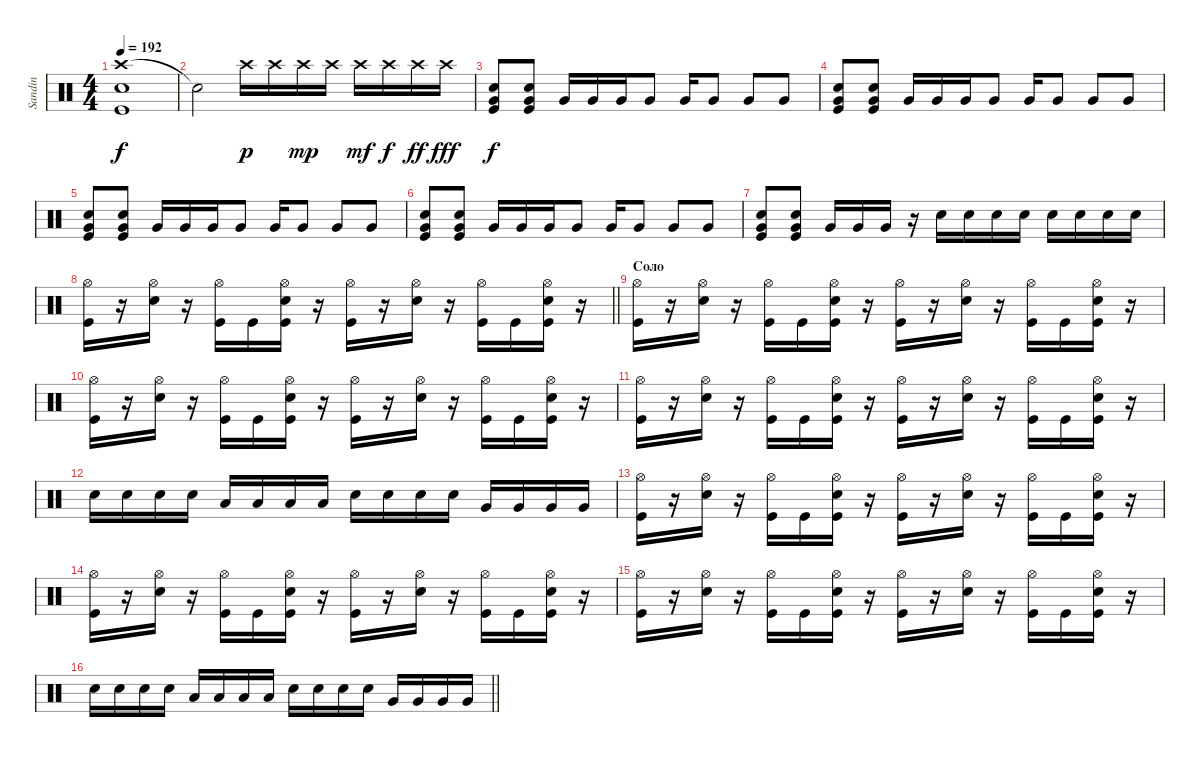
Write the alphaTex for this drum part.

\track ("Sandin" "Sandin") {instrument percussion}
\staff {score}
\articulation defaults
\ts (4 4)
\tempo 192
\clef neutral
\ks c
("Crash high (hit)" "Electric Snare (hit)" "Kick (hit)").1{dy f} |
"Snare (hit)"{t}.2 "Crash high (hit)".16{dy p} "Crash high (hit)".16 "Crash high (hit)".16{dy mp} "Crash high (hit)".16 "Crash high (hit)".16{dy mf} "Crash high (hit)".16{dy f} "Crash high (hit)".16{dy ff} "Crash high (hit)".16{dy fff} |
("Electric Snare (hit)" "Very Low Tom (hit)" "Kick (hit)").8{dy f} ("Electric Snare (hit)" "Very Low Tom (hit)" "Kick (hit)").8 "Very Low Tom (hit)".16 "Very Low Tom (hit)".16 "Very Low Tom (hit)".16 "Very Low Tom (hit)".8 "Very Low Tom (hit)".16 "Very Low Tom (hit)".8 "Very Low Tom (hit)".8 "Very Low Tom (hit)".8 |
("Electric Snare (hit)" "Very Low Tom (hit)" "Kick (hit)").8 ("Electric Snare (hit)" "Very Low Tom (hit)" "Kick (hit)").8 "Very Low Tom (hit)".16 "Very Low Tom (hit)".16 "Very Low Tom (hit)".16 "Very Low Tom (hit)".8 "Very Low Tom (hit)".16 "Very Low Tom (hit)".8 "Very Low Tom (hit)".8 "Very Low Tom (hit)".8 |
("Electric Snare (hit)" "Very Low Tom (hit)" "Kick (hit)").8 ("Electric Snare (hit)" "Very Low Tom (hit)" "Kick (hit)").8 "Very Low Tom (hit)".16 "Very Low Tom (hit)".16 "Very Low Tom (hit)".16 "Very Low Tom (hit)".8 "Very Low Tom (hit)".16 "Very Low Tom (hit)".8 "Very Low Tom (hit)".8 "Very Low Tom (hit)".8 |
("Electric Snare (hit)" "Very Low Tom (hit)" "Kick (hit)").8 ("Electric Snare (hit)" "Very Low Tom (hit)" "Kick (hit)").8 "Very Low Tom (hit)".16 "Very Low Tom (hit)".16 "Very Low Tom (hit)".16 "Very Low Tom (hit)".8 "Very Low Tom (hit)".16 "Very Low Tom (hit)".8 "Very Low Tom (hit)".8 "Very Low Tom (hit)".8 |
("Electric Snare (hit)" "Very Low Tom (hit)" "Kick (hit)").8 ("Electric Snare (hit)" "Very Low Tom (hit)" "Kick (hit)").8 "Very Low Tom (hit)".16 "Very Low Tom (hit)".16 "Very Low Tom (hit)".16 r.16 "Electric Snare (hit)".16 "Electric Snare (hit)".16 "Electric Snare (hit)".16 "Electric Snare (hit)".16 "Electric Snare (hit)".16 "Electric Snare (hit)".16 "Electric Snare (hit)".16 "Electric Snare (hit)".16 |
\barLineRight lightlight
("Hi-Hat (open)" "Kick (hit)").16 r.16 ("Hi-Hat (open)" "Electric Snare (hit)").16 r.16 ("Hi-Hat (open)" "Kick (hit)").16 "Kick (hit)".16 ("Hi-Hat (open)" "Electric Snare (hit)" "Kick (hit)").16 r.16 ("Hi-Hat (open)" "Kick (hit)").16 r.16 ("Hi-Hat (open)" "Electric Snare (hit)").16 r.16 ("Hi-Hat (open)" "Kick (hit)").16 "Kick (hit)".16 ("Hi-Hat (open)" "Electric Snare (hit)" "Kick (hit)").16 r.16 |
\section ("" "Соло")
("Hi-Hat (open)" "Kick (hit)").16 r.16 ("Hi-Hat (open)" "Electric Snare (hit)").16 r.16 ("Hi-Hat (open)" "Kick (hit)").16 "Kick (hit)".16 ("Hi-Hat (open)" "Electric Snare (hit)" "Kick (hit)").16 r.16 ("Hi-Hat (open)" "Kick (hit)").16 r.16 ("Hi-Hat (open)" "Electric Snare (hit)").16 r.16 ("Hi-Hat (open)" "Kick (hit)").16 "Kick (hit)".16 ("Hi-Hat (open)" "Electric Snare (hit)" "Kick (hit)").16 r.16 |
("Hi-Hat (open)" "Kick (hit)").16 r.16 ("Hi-Hat (open)" "Electric Snare (hit)").16 r.16 ("Hi-Hat (open)" "Kick (hit)").16 "Kick (hit)".16 ("Hi-Hat (open)" "Electric Snare (hit)" "Kick (hit)").16 r.16 ("Hi-Hat (open)" "Kick (hit)").16 r.16 ("Hi-Hat (open)" "Electric Snare (hit)").16 r.16 ("Hi-Hat (open)" "Kick (hit)").16 "Kick (hit)".16 ("Hi-Hat (open)" "Electric Snare (hit)" "Kick (hit)").16 r.16 |
("Hi-Hat (open)" "Kick (hit)").16 r.16 ("Hi-Hat (open)" "Electric Snare (hit)").16 r.16 ("Hi-Hat (open)" "Kick (hit)").16 "Kick (hit)".16 ("Hi-Hat (open)" "Electric Snare (hit)" "Kick (hit)").16 r.16 ("Hi-Hat (open)" "Kick (hit)").16 r.16 ("Hi-Hat (open)" "Electric Snare (hit)").16 r.16 ("Hi-Hat (open)" "Kick (hit)").16 "Kick (hit)".16 ("Hi-Hat (open)" "Electric Snare (hit)" "Kick (hit)").16 r.16 |
"Electric Snare (hit)".16 "Electric Snare (hit)".16 "Electric Snare (hit)".16 "Electric Snare (hit)".16 "Low Tom (hit)".16 "Low Tom (hit)".16 "Low Tom (hit)".16 "Low Tom (hit)".16 "Electric Snare (hit)".16 "Electric Snare (hit)".16 "Electric Snare (hit)".16 "Electric Snare (hit)".16 "Very Low Tom (hit)".16 "Very Low Tom (hit)".16 "Very Low Tom (hit)".16 "Very Low Tom (hit)".16 |
("Hi-Hat (open)" "Kick (hit)").16 r.16 ("Hi-Hat (open)" "Electric Snare (hit)").16 r.16 ("Hi-Hat (open)" "Kick (hit)").16 "Kick (hit)".16 ("Hi-Hat (open)" "Electric Snare (hit)" "Kick (hit)").16 r.16 ("Hi-Hat (open)" "Kick (hit)").16 r.16 ("Hi-Hat (open)" "Electric Snare (hit)").16 r.16 ("Hi-Hat (open)" "Kick (hit)").16 "Kick (hit)".16 ("Hi-Hat (open)" "Electric Snare (hit)" "Kick (hit)").16 r.16 |
("Hi-Hat (open)" "Kick (hit)").16 r.16 ("Hi-Hat (open)" "Electric Snare (hit)").16 r.16 ("Hi-Hat (open)" "Kick (hit)").16 "Kick (hit)".16 ("Hi-Hat (open)" "Electric Snare (hit)" "Kick (hit)").16 r.16 ("Hi-Hat (open)" "Kick (hit)").16 r.16 ("Hi-Hat (open)" "Electric Snare (hit)").16 r.16 ("Hi-Hat (open)" "Kick (hit)").16 "Kick (hit)".16 ("Hi-Hat (open)" "Electric Snare (hit)" "Kick (hit)").16 r.16 |
("Hi-Hat (open)" "Kick (hit)").16 r.16 ("Hi-Hat (open)" "Electric Snare (hit)").16 r.16 ("Hi-Hat (open)" "Kick (hit)").16 "Kick (hit)".16 ("Hi-Hat (open)" "Electric Snare (hit)" "Kick (hit)").16 r.16 ("Hi-Hat (open)" "Kick (hit)").16 r.16 ("Hi-Hat (open)" "Electric Snare (hit)").16 r.16 ("Hi-Hat (open)" "Kick (hit)").16 "Kick (hit)".16 ("Hi-Hat (open)" "Electric Snare (hit)" "Kick (hit)").16 r.16 |
\barLineRight lightlight "Electric Snare (hit)".16 "Electric Snare (hit)".16 "Electric Snare (hit)".16 "Electric Snare (hit)".16 "Low Tom (hit)".16 "Low Tom (hit)".16 "Low Tom (hit)".16 "Low Tom (hit)".16 "Electric Snare (hit)".16 "Electric Snare (hit)".16 "Electric Snare (hit)".16 "Electric Snare (hit)".16 "Very Low Tom (hit)".16 "Very Low Tom (hit)".16 "Very Low Tom (hit)".16 "Very Low Tom (hit)".16
